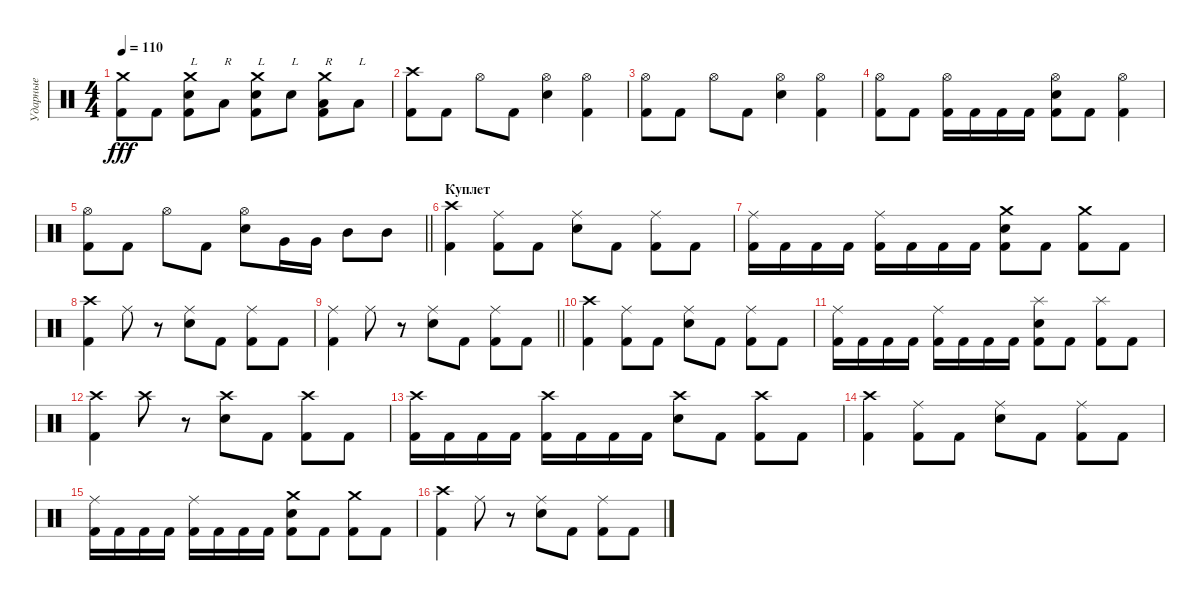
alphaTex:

\track ("Ударные" "Ударные") {mute instrument percussion}
\staff {score}
\articulation defaults
\ts (4 4)
\tempo 110
\clef neutral
\ks c
("Crash medium (hit)" "Kick (hit) 2").8{dy fff} "Kick (hit) 2".8 ("Crash medium (hit)" "Snare (hit) 2" "Kick (hit) 2").8{txt "L"} "Low Tom (hit)".8{txt "R"} ("Crash medium (hit)" "Snare (hit) 2" "Kick (hit) 2").8{txt "L"} "Snare (hit) 2".8{txt "L"} ("Crash medium (hit)" "Low Tom (hit)" "Kick (hit) 2").8{txt "R"} "Low Tom (hit)".8{txt "L"} |
("Crash high (hit)" "Kick (hit) 2").8 "Kick (hit) 2".8 "Hi-Hat (open)".8 "Kick (hit) 2".8 ("Hi-Hat (open)" "Snare (hit) 2").4 ("Hi-Hat (open)" "Kick (hit) 2").4 |
("Hi-Hat (open)" "Kick (hit) 2").8 "Kick (hit) 2".8 "Hi-Hat (open)".8 "Kick (hit) 2".8 ("Hi-Hat (open)" "Snare (hit) 2").4 ("Hi-Hat (open)" "Kick (hit) 2").4 |
("Hi-Hat (open)" "Kick (hit) 2").8 "Kick (hit) 2".8 ("Hi-Hat (open)" "Kick (hit) 2").16 "Kick (hit) 2".16 "Kick (hit) 2".16 "Kick (hit) 2".16 ("Hi-Hat (open)" "Snare (hit) 2" "Kick (hit) 2").8 "Kick (hit) 2".8 ("Hi-Hat (open)" "Kick (hit) 2").4 |
\barLineRight lightlight
("Hi-Hat (open)" "Kick (hit) 2").8 "Kick (hit) 2".8 "Hi-Hat (open)".8 "Kick (hit) 2".8 ("Hi-Hat (open)" "Snare (hit) 2").8 "Very Low Tom (hit)".16 "Very Low Tom (hit)".16 "Mid Tom (hit)".8 "Mid Tom (hit)".8 |
\section ("" "Куплет")
("Crash high (hit)" "Kick (hit) 2").4 ("Ride (middle)" "Kick (hit) 2").8 "Kick (hit) 2".8 ("Ride (middle)" "Snare (hit) 2").8 "Kick (hit) 2".8 ("Ride (middle)" "Kick (hit) 2").8 "Kick (hit) 2".8 |
("Ride (middle)" "Kick (hit) 2").16 "Kick (hit) 2".16 "Kick (hit) 2".16 "Kick (hit) 2".16 ("Ride (middle)" "Kick (hit) 2").16 "Kick (hit) 2".16 "Kick (hit) 2".16 "Kick (hit) 2".16 ("Crash medium (hit)" "Snare (hit) 2" "Kick (hit) 2").8 "Kick (hit) 2".8 ("Crash medium (hit)" "Kick (hit) 2").8 "Kick (hit) 2".8 |
("Crash high (hit)" "Kick (hit) 2").4 "Ride (middle)".8 r.8 ("Ride (middle)" "Snare (hit) 2").8 "Kick (hit) 2".8 ("Ride (middle)" "Kick (hit) 2").8 "Kick (hit) 2".8 |
\barLineRight lightlight
("Ride (middle)" "Kick (hit) 2").4 "Ride (middle)".8 r.8 ("Ride (middle)" "Snare (hit) 2").8 "Kick (hit) 2".8 ("Ride (middle)" "Kick (hit) 2").8 "Kick (hit) 2".8 |
("Crash high (hit)" "Kick (hit) 2").4 ("Ride (middle)" "Kick (hit) 2").8 "Kick (hit) 2".8 ("Ride (middle)" "Snare (hit) 2").8 "Kick (hit) 2".8 ("Ride (middle)" "Kick (hit) 2").8 "Kick (hit) 2".8 |
("Ride (middle)" "Kick (hit) 2").16 "Kick (hit) 2".16 "Kick (hit) 2".16 "Kick (hit) 2".16 ("Ride (middle)" "Kick (hit) 2").16 "Kick (hit) 2".16 "Kick (hit) 2".16 "Kick (hit) 2".16 ("Splash (hit)" "Snare (hit) 2" "Kick (hit) 2").8 "Kick (hit) 2".8 ("Splash (hit)" "Kick (hit) 2").8 "Kick (hit) 2".8 |
("Crash high (hit)" "Kick (hit) 2").4 "Crash high (hit)".8 r.8 ("Crash high (hit)" "Snare (hit) 2").8 "Kick (hit) 2".8 ("Crash high (hit)" "Kick (hit) 2").8 "Kick (hit) 2".8 |
("Crash high (hit)" "Kick (hit) 2").16 "Kick (hit) 2".16 "Kick (hit) 2".16 "Kick (hit) 2".16 ("Crash high (hit)" "Kick (hit) 2").16 "Kick (hit) 2".16 "Kick (hit) 2".16 "Kick (hit) 2".16 ("Crash high (hit)" "Snare (hit) 2").8 "Kick (hit) 2".8 ("Crash high (hit)" "Kick (hit) 2").8 "Kick (hit) 2".8 |
("Crash high (hit)" "Kick (hit) 2").4 ("Ride (middle)" "Kick (hit) 2").8 "Kick (hit) 2".8 ("Ride (middle)" "Snare (hit) 2").8 "Kick (hit) 2".8 ("Ride (middle)" "Kick (hit) 2").8 "Kick (hit) 2".8 |
("Ride (middle)" "Kick (hit) 2").16 "Kick (hit) 2".16 "Kick (hit) 2".16 "Kick (hit) 2".16 ("Ride (middle)" "Kick (hit) 2").16 "Kick (hit) 2".16 "Kick (hit) 2".16 "Kick (hit) 2".16 ("Crash medium (hit)" "Snare (hit) 2" "Kick (hit) 2").8 "Kick (hit) 2".8 ("Crash medium (hit)" "Kick (hit) 2").8 "Kick (hit) 2".8 |
("Crash high (hit)" "Kick (hit) 2").4 "Ride (middle)".8 r.8 ("Ride (middle)" "Snare (hit) 2").8 "Kick (hit) 2".8 ("Ride (middle)" "Kick (hit) 2").8 "Kick (hit) 2".8
